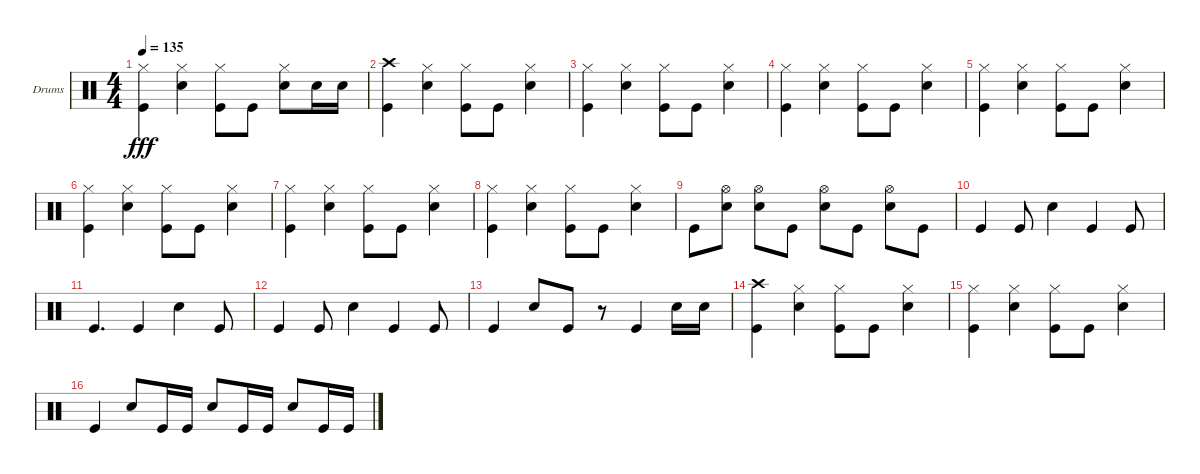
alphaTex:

\bracketExtendMode groupsimilarinstruments
\firstSystemTrackNameOrientation horizontal
\otherSystemsTrackNameOrientation horizontal
\track ("Drumkit" "Drums") {instrument percussion}
\staff {score}
\articulation defaults
\ts (4 4)
\tempo 135
\clef neutral
\ks c
("Kick (hit)" "Hi-Hat (closed)").4{dy fff} ("Hi-Hat (closed)" "Snare (hit) 2").4 ("Kick (hit)" "Hi-Hat (closed)").8 "Kick (hit)".8 ("Hi-Hat (closed)" "Snare (hit) 2").8 "Snare (hit) 2".16 "Snare (hit) 2".16 |
("Kick (hit)" "Crash high (hit)").4 ("Hi-Hat (closed)" "Snare (hit) 2").4 ("Kick (hit)" "Hi-Hat (closed)").8 "Kick (hit)".8 ("Hi-Hat (closed)" "Snare (hit) 2").4 |
("Kick (hit)" "Hi-Hat (closed)").4 ("Hi-Hat (closed)" "Snare (hit) 2").4 ("Kick (hit)" "Hi-Hat (closed)").8 "Kick (hit)".8 ("Hi-Hat (closed)" "Snare (hit) 2").4 |
("Kick (hit)" "Hi-Hat (closed)").4 ("Hi-Hat (closed)" "Snare (hit) 2").4 ("Kick (hit)" "Hi-Hat (closed)").8 "Kick (hit)".8 ("Hi-Hat (closed)" "Snare (hit) 2").4 |
("Kick (hit)" "Hi-Hat (closed)").4 ("Hi-Hat (closed)" "Snare (hit) 2").4 ("Kick (hit)" "Hi-Hat (closed)").8 "Kick (hit)".8 ("Hi-Hat (closed)" "Snare (hit) 2").4 |
("Kick (hit)" "Hi-Hat (closed)").4 ("Hi-Hat (closed)" "Snare (hit) 2").4 ("Kick (hit)" "Hi-Hat (closed)").8 "Kick (hit)".8 ("Hi-Hat (closed)" "Snare (hit) 2").4 |
("Kick (hit)" "Hi-Hat (closed)").4 ("Hi-Hat (closed)" "Snare (hit) 2").4 ("Kick (hit)" "Hi-Hat (closed)").8 "Kick (hit)".8 ("Hi-Hat (closed)" "Snare (hit) 2").4 |
("Kick (hit)" "Hi-Hat (closed)").4 ("Hi-Hat (closed)" "Snare (hit) 2").4 ("Kick (hit)" "Hi-Hat (closed)").8 "Kick (hit)".8 ("Hi-Hat (closed)" "Snare (hit) 2").4 |
"Kick (hit)".8 ("Hi-Hat (open)" "Snare (hit) 2").8 ("Hi-Hat (open)" "Snare (hit) 2").8 "Kick (hit)".8 ("Hi-Hat (open)" "Snare (hit) 2").8 "Kick (hit)".8 ("Hi-Hat (open)" "Snare (hit) 2").8 "Kick (hit)".8 |
"Kick (hit)".4 "Kick (hit)".8 "Snare (hit) 2".4 "Kick (hit)".4 "Kick (hit)".8 |
"Kick (hit)".4{d} "Kick (hit)".4 "Snare (hit) 2".4 "Kick (hit)".8 |
"Kick (hit)".4 "Kick (hit)".8 "Snare (hit) 2".4 "Kick (hit)".4 "Kick (hit)".8 |
"Kick (hit)".4 "Snare (hit) 2".8 "Kick (hit)".8 r.8 "Kick (hit)".4 "Snare (hit) 2".16 "Snare (hit) 2".16 |
("Kick (hit)" "Crash high (hit)").4 ("Hi-Hat (closed)" "Snare (hit) 2").4 ("Kick (hit)" "Hi-Hat (closed)").8 "Kick (hit)".8 ("Hi-Hat (closed)" "Snare (hit) 2").4 |
("Kick (hit)" "Hi-Hat (closed)").4 ("Hi-Hat (closed)" "Snare (hit) 2").4 ("Kick (hit)" "Hi-Hat (closed)").8 "Kick (hit)".8 ("Hi-Hat (closed)" "Snare (hit) 2").4 |
"Kick (hit)".4 "Snare (hit) 2".8 "Kick (hit)".16 "Kick (hit)".16 "Snare (hit) 2".8 "Kick (hit)".16 "Kick (hit)".16 "Snare (hit) 2".8 "Kick (hit)".16 "Kick (hit)".16
